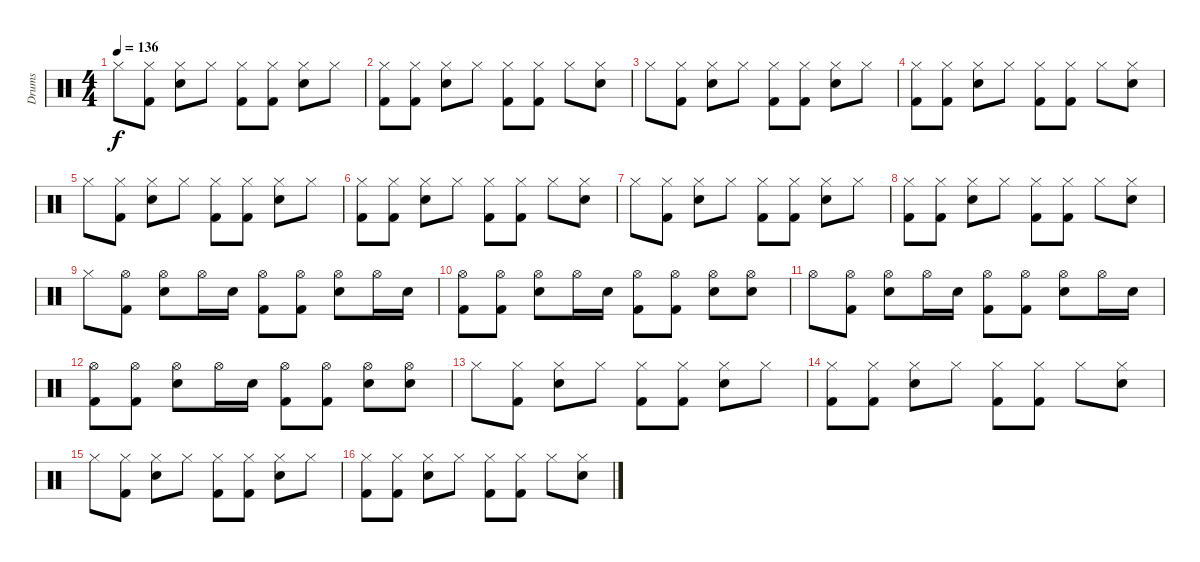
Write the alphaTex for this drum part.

\track ("Drums" "Drums") {instrument percussion}
\staff {score}
\articulation defaults
\ts (4 4)
\tempo 136
\clef neutral
\ks c "Hi-Hat (closed)".8{dy f}
("Hi-Hat (closed)" "Kick (hit) 2").8 ("Hi-Hat (closed)" "Snare (hit) 2").8 "Hi-Hat (closed)".8 ("Hi-Hat (closed)" "Kick (hit) 2").8 ("Hi-Hat (closed)" "Kick (hit) 2").8 ("Hi-Hat (closed)" "Snare (hit) 2").8 "Hi-Hat (closed)".8 |
("Hi-Hat (closed)" "Kick (hit) 2").8 ("Hi-Hat (closed)" "Kick (hit) 2").8 ("Hi-Hat (closed)" "Snare (hit) 2").8 "Hi-Hat (closed)".8 ("Hi-Hat (closed)" "Kick (hit) 2").8 ("Hi-Hat (closed)" "Kick (hit) 2").8 "Hi-Hat (closed)".8 ("Hi-Hat (closed)" "Snare (hit) 2").8 |
"Hi-Hat (closed)".8 ("Hi-Hat (closed)" "Kick (hit) 2").8 ("Hi-Hat (closed)" "Snare (hit) 2").8 "Hi-Hat (closed)".8 ("Hi-Hat (closed)" "Kick (hit) 2").8 ("Hi-Hat (closed)" "Kick (hit) 2").8 ("Hi-Hat (closed)" "Snare (hit) 2").8 "Hi-Hat (closed)".8 |
("Hi-Hat (closed)" "Kick (hit) 2").8 ("Hi-Hat (closed)" "Kick (hit) 2").8 ("Hi-Hat (closed)" "Snare (hit) 2").8 "Hi-Hat (closed)".8 ("Hi-Hat (closed)" "Kick (hit) 2").8 ("Hi-Hat (closed)" "Kick (hit) 2").8 "Hi-Hat (closed)".8 ("Hi-Hat (closed)" "Snare (hit) 2").8 |
"Hi-Hat (closed)".8 ("Hi-Hat (closed)" "Kick (hit) 2").8 ("Hi-Hat (closed)" "Snare (hit) 2").8 "Hi-Hat (closed)".8 ("Hi-Hat (closed)" "Kick (hit) 2").8 ("Hi-Hat (closed)" "Kick (hit) 2").8 ("Hi-Hat (closed)" "Snare (hit) 2").8 "Hi-Hat (closed)".8 |
("Hi-Hat (closed)" "Kick (hit) 2").8 ("Hi-Hat (closed)" "Kick (hit) 2").8 ("Hi-Hat (closed)" "Snare (hit) 2").8 "Hi-Hat (closed)".8 ("Hi-Hat (closed)" "Kick (hit) 2").8 ("Hi-Hat (closed)" "Kick (hit) 2").8 "Hi-Hat (closed)".8 ("Hi-Hat (closed)" "Snare (hit) 2").8 |
"Hi-Hat (closed)".8 ("Hi-Hat (closed)" "Kick (hit) 2").8 ("Hi-Hat (closed)" "Snare (hit) 2").8 "Hi-Hat (closed)".8 ("Hi-Hat (closed)" "Kick (hit) 2").8 ("Hi-Hat (closed)" "Kick (hit) 2").8 ("Hi-Hat (closed)" "Snare (hit) 2").8 "Hi-Hat (closed)".8 |
("Hi-Hat (closed)" "Kick (hit) 2").8 ("Hi-Hat (closed)" "Kick (hit) 2").8 ("Hi-Hat (closed)" "Snare (hit) 2").8 "Hi-Hat (closed)".8 ("Hi-Hat (closed)" "Kick (hit) 2").8 ("Hi-Hat (closed)" "Kick (hit) 2").8 "Hi-Hat (closed)".8 ("Hi-Hat (closed)" "Snare (hit) 2").8 |
"Hi-Hat (closed)".8 ("Hi-Hat (open)" "Kick (hit) 2").8 ("Hi-Hat (open)" "Snare (hit) 2").8 "Hi-Hat (open)".16 "Snare (hit) 2".16 ("Hi-Hat (open)" "Kick (hit) 2").8 ("Hi-Hat (open)" "Kick (hit) 2").8 ("Hi-Hat (open)" "Snare (hit) 2").8 "Hi-Hat (open)".16 "Snare (hit) 2".16 |
("Hi-Hat (open)" "Kick (hit) 2").8 ("Hi-Hat (open)" "Kick (hit) 2").8 ("Hi-Hat (open)" "Snare (hit) 2").8 "Hi-Hat (open)".16 "Snare (hit) 2".16 ("Hi-Hat (open)" "Kick (hit) 2").8 ("Hi-Hat (open)" "Kick (hit) 2").8 ("Hi-Hat (open)" "Snare (hit) 2").8 ("Hi-Hat (open)" "Snare (hit) 2").8 |
"Hi-Hat (open)".8 ("Hi-Hat (open)" "Kick (hit) 2").8 ("Hi-Hat (open)" "Snare (hit) 2").8 "Hi-Hat (open)".16 "Snare (hit) 2".16 ("Hi-Hat (open)" "Kick (hit) 2").8 ("Hi-Hat (open)" "Kick (hit) 2").8 ("Hi-Hat (open)" "Snare (hit) 2").8 "Hi-Hat (open)".16 "Snare (hit) 2".16 |
("Hi-Hat (open)" "Kick (hit) 2").8 ("Hi-Hat (open)" "Kick (hit) 2").8 ("Hi-Hat (open)" "Snare (hit) 2").8 "Hi-Hat (open)".16 "Snare (hit) 2".16 ("Hi-Hat (open)" "Kick (hit) 2").8 ("Hi-Hat (open)" "Kick (hit) 2").8 ("Hi-Hat (open)" "Snare (hit) 2").8 ("Hi-Hat (open)" "Snare (hit) 2").8 |
"Hi-Hat (closed)".8 ("Hi-Hat (closed)" "Kick (hit) 2").8 ("Hi-Hat (closed)" "Snare (hit) 2").8 "Hi-Hat (closed)".8 ("Hi-Hat (closed)" "Kick (hit) 2").8 ("Hi-Hat (closed)" "Kick (hit) 2").8 ("Hi-Hat (closed)" "Snare (hit) 2").8 "Hi-Hat (closed)".8 |
("Hi-Hat (closed)" "Kick (hit) 2").8 ("Hi-Hat (closed)" "Kick (hit) 2").8 ("Hi-Hat (closed)" "Snare (hit) 2").8 "Hi-Hat (closed)".8 ("Hi-Hat (closed)" "Kick (hit) 2").8 ("Hi-Hat (closed)" "Kick (hit) 2").8 "Hi-Hat (closed)".8 ("Hi-Hat (closed)" "Snare (hit) 2").8 |
"Hi-Hat (closed)".8 ("Hi-Hat (closed)" "Kick (hit) 2").8 ("Hi-Hat (closed)" "Snare (hit) 2").8 "Hi-Hat (closed)".8 ("Hi-Hat (closed)" "Kick (hit) 2").8 ("Hi-Hat (closed)" "Kick (hit) 2").8 ("Hi-Hat (closed)" "Snare (hit) 2").8 "Hi-Hat (closed)".8 |
("Hi-Hat (closed)" "Kick (hit) 2").8 ("Hi-Hat (closed)" "Kick (hit) 2").8 ("Hi-Hat (closed)" "Snare (hit) 2").8 "Hi-Hat (closed)".8 ("Hi-Hat (closed)" "Kick (hit) 2").8 ("Hi-Hat (closed)" "Kick (hit) 2").8 "Hi-Hat (closed)".8 ("Hi-Hat (closed)" "Snare (hit) 2").8
